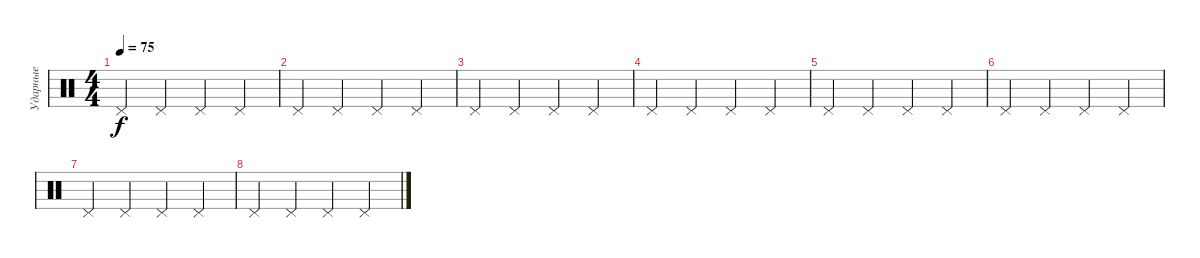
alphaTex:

\track ("Ударные" "Ударные") {instrument percussion}
\staff {score}
\articulation defaults
\ts (4 4)
\tempo 75
\clef neutral
\ks c "Pedal Hi-Hat (hit)".4{dy f} "Pedal Hi-Hat (hit)".4 "Pedal Hi-Hat (hit)".4 "Pedal Hi-Hat (hit)".4
|
"Pedal Hi-Hat (hit)".4 "Pedal Hi-Hat (hit)".4 "Pedal Hi-Hat (hit)".4 "Pedal Hi-Hat (hit)".4 |
"Pedal Hi-Hat (hit)".4 "Pedal Hi-Hat (hit)".4 "Pedal Hi-Hat (hit)".4 "Pedal Hi-Hat (hit)".4 |
"Pedal Hi-Hat (hit)".4 "Pedal Hi-Hat (hit)".4 "Pedal Hi-Hat (hit)".4 "Pedal Hi-Hat (hit)".4 |
"Pedal Hi-Hat (hit)".4 "Pedal Hi-Hat (hit)".4 "Pedal Hi-Hat (hit)".4 "Pedal Hi-Hat (hit)".4 |
"Pedal Hi-Hat (hit)".4 "Pedal Hi-Hat (hit)".4 "Pedal Hi-Hat (hit)".4 "Pedal Hi-Hat (hit)".4 |
"Pedal Hi-Hat (hit)".4 "Pedal Hi-Hat (hit)".4 "Pedal Hi-Hat (hit)".4 "Pedal Hi-Hat (hit)".4 |
"Pedal Hi-Hat (hit)".4 "Pedal Hi-Hat (hit)".4 "Pedal Hi-Hat (hit)".4 "Pedal Hi-Hat (hit)".4
